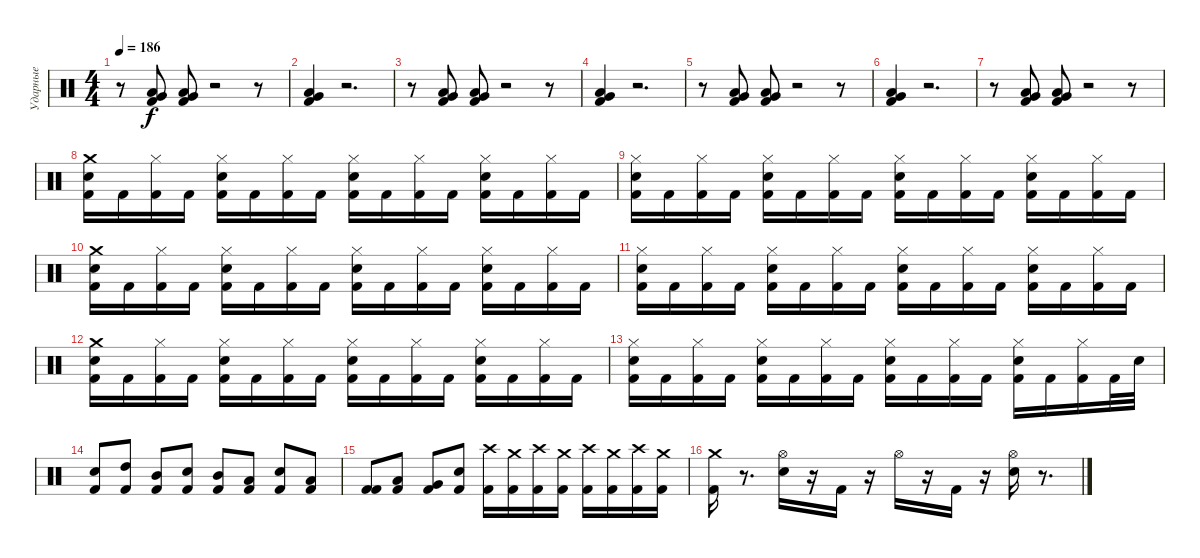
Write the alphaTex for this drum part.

\track ("Ударные" "Ударные") {instrument percussion}
\staff {score}
\articulation defaults
\ts (4 4)
\tempo 186
\clef neutral
\ks c
r.8{dy f} ("Kick (hit) 2" "Very Low Tom (hit)" "Low Floor Tom (hit)").8 ("Kick (hit) 2" "Very Low Tom (hit)" "Low Floor Tom (hit)").8 r.2 r.8 |
("Kick (hit) 2" "Very Low Tom (hit)" "Low Floor Tom (hit)").4 r.2{d} |
r.8 ("Kick (hit) 2" "Very Low Tom (hit)" "Low Floor Tom (hit)").8 ("Kick (hit) 2" "Very Low Tom (hit)" "Low Floor Tom (hit)").8 r.2 r.8 |
("Kick (hit) 2" "Very Low Tom (hit)" "Low Floor Tom (hit)").4 r.2{d} |
r.8 ("Kick (hit) 2" "Very Low Tom (hit)" "Low Floor Tom (hit)").8 ("Kick (hit) 2" "Very Low Tom (hit)" "Low Floor Tom (hit)").8 r.2 r.8 |
("Kick (hit) 2" "Very Low Tom (hit)" "Low Floor Tom (hit)").4 r.2{d} |
r.8 ("Kick (hit) 2" "Very Low Tom (hit)" "Low Floor Tom (hit)").8 ("Kick (hit) 2" "Very Low Tom (hit)" "Low Floor Tom (hit)").8 r.2 r.8 |
("Kick (hit) 2" "Snare (hit) 2" "Crash medium (hit)").16 "Kick (hit) 2".16 ("Kick (hit) 2" "Hi-Hat (closed)").16 "Kick (hit) 2".16 ("Kick (hit) 2" "Snare (hit) 2" "Hi-Hat (closed)").16 "Kick (hit) 2".16 ("Kick (hit) 2" "Hi-Hat (closed)").16 "Kick (hit) 2".16 ("Kick (hit) 2" "Snare (hit) 2" "Hi-Hat (closed)").16 "Kick (hit) 2".16 ("Kick (hit) 2" "Hi-Hat (closed)").16 "Kick (hit) 2".16 ("Kick (hit) 2" "Snare (hit) 2" "Hi-Hat (closed)").16 "Kick (hit) 2".16 ("Kick (hit) 2" "Hi-Hat (closed)").16 "Kick (hit) 2".16 |
("Kick (hit) 2" "Snare (hit) 2" "Hi-Hat (closed)").16 "Kick (hit) 2".16 ("Kick (hit) 2" "Hi-Hat (closed)").16 "Kick (hit) 2".16 ("Kick (hit) 2" "Snare (hit) 2" "Hi-Hat (closed)").16 "Kick (hit) 2".16 ("Kick (hit) 2" "Hi-Hat (closed)").16 "Kick (hit) 2".16 ("Kick (hit) 2" "Snare (hit) 2" "Hi-Hat (closed)").16 "Kick (hit) 2".16 ("Kick (hit) 2" "Hi-Hat (closed)").16 "Kick (hit) 2".16 ("Kick (hit) 2" "Snare (hit) 2" "Hi-Hat (closed)").16 "Kick (hit) 2".16 ("Kick (hit) 2" "Hi-Hat (closed)").16 "Kick (hit) 2".16 |
("Kick (hit) 2" "Snare (hit) 2" "Crash medium (hit)").16 "Kick (hit) 2".16 ("Kick (hit) 2" "Hi-Hat (closed)").16 "Kick (hit) 2".16 ("Kick (hit) 2" "Snare (hit) 2" "Hi-Hat (closed)").16 "Kick (hit) 2".16 ("Kick (hit) 2" "Hi-Hat (closed)").16 "Kick (hit) 2".16 ("Kick (hit) 2" "Snare (hit) 2" "Hi-Hat (closed)").16 "Kick (hit) 2".16 ("Kick (hit) 2" "Hi-Hat (closed)").16 "Kick (hit) 2".16 ("Kick (hit) 2" "Snare (hit) 2" "Hi-Hat (closed)").16 "Kick (hit) 2".16 ("Kick (hit) 2" "Hi-Hat (closed)").16 "Kick (hit) 2".16 |
("Kick (hit) 2" "Snare (hit) 2" "Hi-Hat (closed)").16 "Kick (hit) 2".16 ("Kick (hit) 2" "Hi-Hat (closed)").16 "Kick (hit) 2".16 ("Kick (hit) 2" "Snare (hit) 2" "Hi-Hat (closed)").16 "Kick (hit) 2".16 ("Kick (hit) 2" "Hi-Hat (closed)").16 "Kick (hit) 2".16 ("Kick (hit) 2" "Snare (hit) 2" "Hi-Hat (closed)").16 "Kick (hit) 2".16 ("Kick (hit) 2" "Hi-Hat (closed)").16 "Kick (hit) 2".16 ("Kick (hit) 2" "Snare (hit) 2" "Hi-Hat (closed)").16 "Kick (hit) 2".16 ("Kick (hit) 2" "Hi-Hat (closed)").16 "Kick (hit) 2".16 |
("Kick (hit) 2" "Snare (hit) 2" "Crash medium (hit)").16 "Kick (hit) 2".16 ("Kick (hit) 2" "Hi-Hat (closed)").16 "Kick (hit) 2".16 ("Kick (hit) 2" "Snare (hit) 2" "Hi-Hat (closed)").16 "Kick (hit) 2".16 ("Kick (hit) 2" "Hi-Hat (closed)").16 "Kick (hit) 2".16 ("Kick (hit) 2" "Snare (hit) 2" "Hi-Hat (closed)").16 "Kick (hit) 2".16 ("Kick (hit) 2" "Hi-Hat (closed)").16 "Kick (hit) 2".16 ("Kick (hit) 2" "Snare (hit) 2" "Hi-Hat (closed)").16 "Kick (hit) 2".16 ("Kick (hit) 2" "Hi-Hat (closed)").16 "Kick (hit) 2".16 |
("Kick (hit) 2" "Snare (hit) 2" "Hi-Hat (closed)").16 "Kick (hit) 2".16 ("Kick (hit) 2" "Hi-Hat (closed)").16 "Kick (hit) 2".16 ("Kick (hit) 2" "Snare (hit) 2" "Hi-Hat (closed)").16 "Kick (hit) 2".16 ("Kick (hit) 2" "Hi-Hat (closed)").16 "Kick (hit) 2".16 ("Kick (hit) 2" "Snare (hit) 2" "Hi-Hat (closed)").16 "Kick (hit) 2".16 ("Kick (hit) 2" "Hi-Hat (closed)").16 "Kick (hit) 2".16 ("Kick (hit) 2" "Snare (hit) 2" "Hi-Hat (closed)").16 "Kick (hit) 2".16 ("Kick (hit) 2" "Hi-Hat (closed)").16 "Kick (hit) 2".32 "Snare (hit) 2".32 |
("Kick (hit) 2" "Snare (hit) 2").8 ("Kick (hit) 2" "High Tom (hit)").8 ("Kick (hit) 2" "Mid Tom (hit)").8 ("Kick (hit) 2" "Snare (hit) 2").8 ("Kick (hit) 2" "Mid Tom (hit)").8 ("Kick (hit) 2" "Low Tom (hit)").8 ("Kick (hit) 2" "Snare (hit) 2").8 ("Kick (hit) 2" "Low Tom (hit)").8 |
("Kick (hit) 2" "Kick (hit) 2").8 ("Kick (hit) 2" "Low Tom (hit)").8 ("Kick (hit) 2" "Very Low Tom (hit)").8 ("Kick (hit) 2" "Snare (hit) 2").8 ("Kick (hit) 2" "Crash high (hit)").16 ("Kick (hit) 2" "Crash medium (hit)").16 ("Kick (hit) 2" "Crash high (hit)").16 ("Kick (hit) 2" "Crash medium (hit)").16 ("Kick (hit) 2" "Crash high (hit)").16 ("Kick (hit) 2" "Crash medium (hit)").16 ("Kick (hit) 2" "Crash high (hit)").16 ("Kick (hit) 2" "Crash medium (hit)").16 |
("Kick (hit) 2" "Crash medium (hit)").16 r.8{d} ("Snare (hit) 2" "Hi-Hat (open)").16 r.16 "Kick (hit) 2".16 r.16 "Hi-Hat (open)".16 r.16 "Kick (hit) 2".16 r.16 ("Snare (hit) 2" "Hi-Hat (open)").16 r.8{d}
